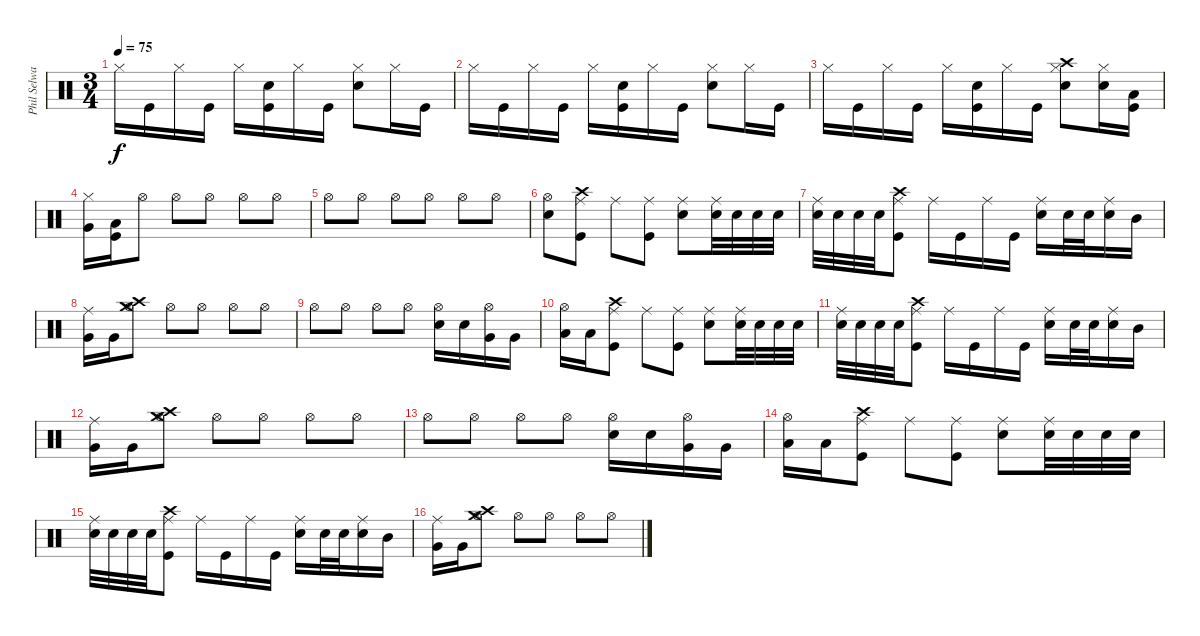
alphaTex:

\track ("Phil Selway" "Phil Selwa") {instrument percussion}
\staff {score}
\articulation defaults
\ts (3 4)
\tempo 75
\clef neutral
\ks c "Hi-Hat (closed)".16{dy f} "Kick (hit)".16 "Hi-Hat (closed)".16 "Kick (hit)".16 "Hi-Hat (closed)".16
("Kick (hit)" "Snare (hit) 2").16 "Hi-Hat (closed)".16 "Kick (hit)".16 ("Snare (hit) 2" "Hi-Hat (closed)").8 "Hi-Hat (closed)".16 "Kick (hit)".16 |
"Hi-Hat (closed)".16 "Kick (hit)".16 "Hi-Hat (closed)".16 "Kick (hit)".16 "Hi-Hat (closed)".16 ("Kick (hit)" "Snare (hit) 2").16 "Hi-Hat (closed)".16 "Kick (hit)".16 ("Snare (hit) 2" "Hi-Hat (closed)").8 "Hi-Hat (closed)".16 "Kick (hit)".16 |
"Hi-Hat (closed)".16 "Kick (hit)".16 "Hi-Hat (closed)".16 "Kick (hit)".16 "Hi-Hat (closed)".16 ("Kick (hit)" "Snare (hit) 2").16 "Hi-Hat (closed)".16 "Kick (hit)".16 ("Snare (hit) 2" "Hi-Hat (closed)" "Crash high (hit)").8 ("Snare (hit) 2" "Hi-Hat (closed)").16 ("Kick (hit)" "Low Tom (hit)").16 |
("Hi-Hat (closed)" "Very Low Tom (hit)").16 ("Kick (hit)" "Low Floor Tom (hit)").16 "Hi-Hat (open)".8 "Hi-Hat (open)".8 "Hi-Hat (open)".8 "Hi-Hat (open)".8 "Hi-Hat (open)".8 |
"Hi-Hat (open)".8 "Hi-Hat (open)".8 "Hi-Hat (open)".8 "Hi-Hat (open)".8 "Hi-Hat (open)".8 "Hi-Hat (open)".8 |
("Snare (hit) 2" "Hi-Hat (open)").8 ("Kick (hit)" "Crash high (hit)" "Ride (middle)").8 "Ride (middle)".8 ("Kick (hit)" "Ride (middle)").8 ("Snare (hit) 2" "Ride (middle)").8 ("Snare (hit) 2" "Ride (middle)").32 "Snare (hit) 2".32 "Snare (hit) 2".32 "Snare (hit) 2".32 |
("Snare (hit) 2" "Ride (middle)").32 "Snare (hit) 2".32 "Snare (hit) 2".32 "Snare (hit) 2".32 ("Kick (hit)" "Crash high (hit)" "Ride (middle)").8 "Ride (middle)".16 "Kick (hit)".16 "Ride (middle)".16 "Kick (hit)".16 ("Snare (hit) 2" "Ride (middle)").16 "Snare (hit) 2".32 "Snare (hit) 2".32 ("Snare (hit) 2" "Ride (middle)").16 "Mid Tom (hit)".16 |
("Very Low Tom (hit)" "Ride (middle)").16 "Very Low Tom (hit)".16 ("Hi-Hat (open)" "Crash high (hit)" "Crash medium (hit)").8 "Hi-Hat (open)".8 "Hi-Hat (open)".8 "Hi-Hat (open)".8 "Hi-Hat (open)".8 |
"Hi-Hat (open)".8 "Hi-Hat (open)".8 "Hi-Hat (open)".8 "Hi-Hat (open)".8 ("Snare (hit) 2" "Hi-Hat (open)").16 "Snare (hit) 2".16 ("Very Low Tom (hit)" "Hi-Hat (open)").16 "Very Low Tom (hit)".16 |
("Low Floor Tom (hit)" "Hi-Hat (open)").16 "Low Floor Tom (hit)".16 ("Kick (hit)" "Crash high (hit)" "Ride (middle)").8 "Ride (middle)".8 ("Kick (hit)" "Ride (middle)").8 ("Snare (hit) 2" "Ride (middle)").8 ("Snare (hit) 2" "Ride (middle)").32 "Snare (hit) 2".32 "Snare (hit) 2".32 "Snare (hit) 2".32 |
("Snare (hit) 2" "Ride (middle)").32 "Snare (hit) 2".32 "Snare (hit) 2".32 "Snare (hit) 2".32 ("Kick (hit)" "Crash high (hit)" "Ride (middle)").8 "Ride (middle)".16 "Kick (hit)".16 "Ride (middle)".16 "Kick (hit)".16 ("Snare (hit) 2" "Ride (middle)").16 "Snare (hit) 2".32 "Snare (hit) 2".32 ("Snare (hit) 2" "Ride (middle)").16 "Mid Tom (hit)".16 |
("Very Low Tom (hit)" "Ride (middle)").16 "Very Low Tom (hit)".16 ("Hi-Hat (open)" "Crash high (hit)" "Crash medium (hit)").8 "Hi-Hat (open)".8 "Hi-Hat (open)".8 "Hi-Hat (open)".8 "Hi-Hat (open)".8 |
"Hi-Hat (open)".8 "Hi-Hat (open)".8 "Hi-Hat (open)".8 "Hi-Hat (open)".8 ("Snare (hit) 2" "Hi-Hat (open)").16 "Snare (hit) 2".16 ("Very Low Tom (hit)" "Hi-Hat (open)").16 "Very Low Tom (hit)".16 |
("Low Floor Tom (hit)" "Hi-Hat (open)").16 "Low Floor Tom (hit)".16 ("Kick (hit)" "Crash high (hit)" "Ride (middle)").8 "Ride (middle)".8 ("Kick (hit)" "Ride (middle)").8 ("Snare (hit) 2" "Ride (middle)").8 ("Snare (hit) 2" "Ride (middle)").32 "Snare (hit) 2".32 "Snare (hit) 2".32 "Snare (hit) 2".32 |
("Snare (hit) 2" "Ride (middle)").32 "Snare (hit) 2".32 "Snare (hit) 2".32 "Snare (hit) 2".32 ("Kick (hit)" "Crash high (hit)" "Ride (middle)").8 "Ride (middle)".16 "Kick (hit)".16 "Ride (middle)".16 "Kick (hit)".16 ("Snare (hit) 2" "Ride (middle)").16 "Snare (hit) 2".32 "Snare (hit) 2".32 ("Snare (hit) 2" "Ride (middle)").16 "Mid Tom (hit)".16 |
("Very Low Tom (hit)" "Ride (middle)").16 "Very Low Tom (hit)".16 ("Hi-Hat (open)" "Crash high (hit)" "Crash medium (hit)").8 "Hi-Hat (open)".8 "Hi-Hat (open)".8 "Hi-Hat (open)".8 "Hi-Hat (open)".8
